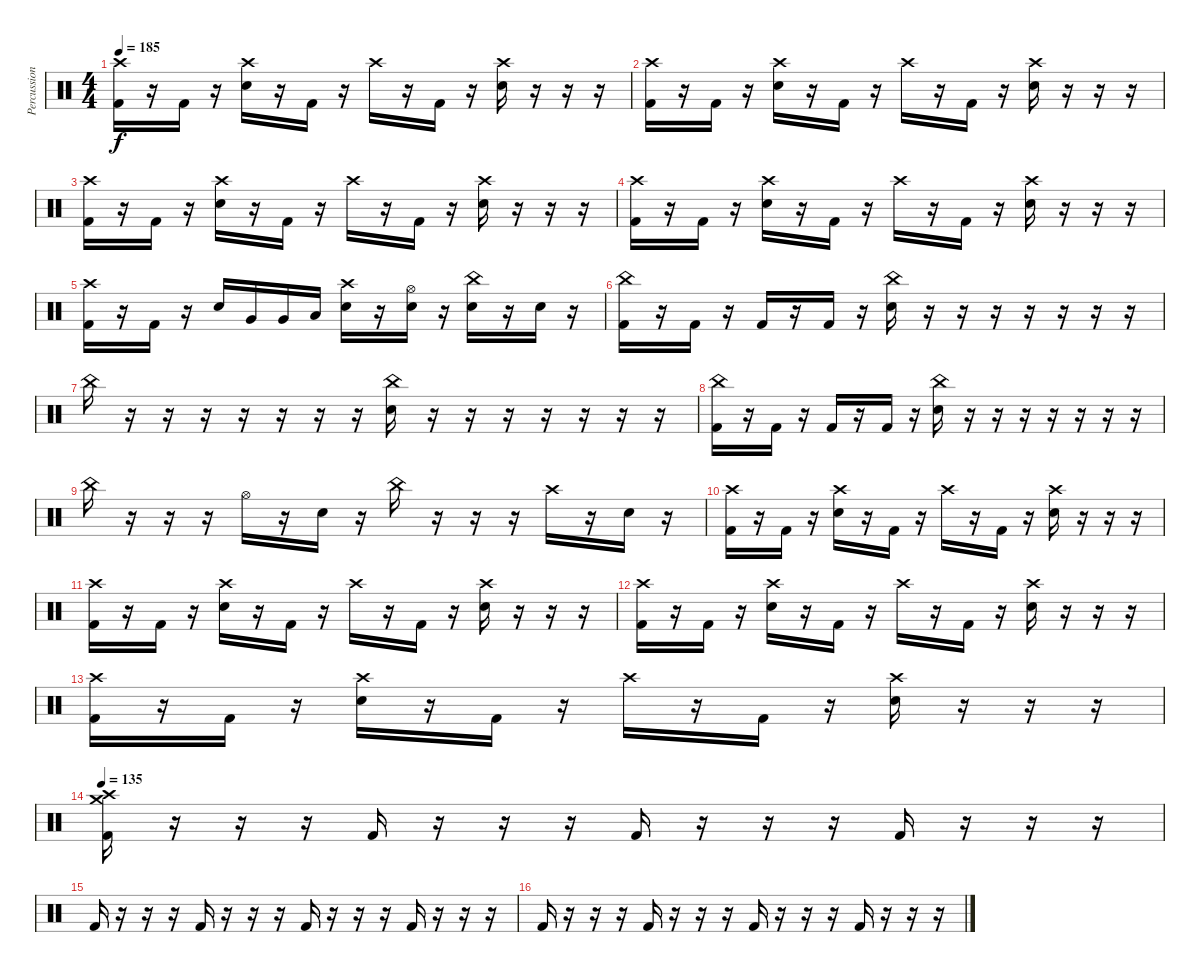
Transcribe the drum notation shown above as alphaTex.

\track ("Percussion" "Percussion") {instrument percussion}
\staff {score}
\articulation defaults
\ts (4 4)
\tempo 185
\clef neutral
\ks c
("Crash high (hit)" "Kick (hit) 2").16{dy f} r.16 "Kick (hit) 2".16 r.16 ("Crash high (hit)" "Electric Snare (hit)").16 r.16 "Kick (hit) 2".16 r.16 "Crash high (hit)".16 r.16 "Kick (hit) 2".16 r.16 ("Crash high (hit)" "Electric Snare (hit)").16 r.16 r.16 r.16 |
("Crash high (hit)" "Kick (hit) 2").16 r.16 "Kick (hit) 2".16 r.16 ("Crash high (hit)" "Electric Snare (hit)").16 r.16 "Kick (hit) 2".16 r.16 "Crash high (hit)".16 r.16 "Kick (hit) 2".16 r.16 ("Crash high (hit)" "Electric Snare (hit)").16 r.16 r.16 r.16 |
("Crash high (hit)" "Kick (hit) 2").16 r.16 "Kick (hit) 2".16 r.16 ("Crash high (hit)" "Electric Snare (hit)").16 r.16 "Kick (hit) 2".16 r.16 "Crash high (hit)".16 r.16 "Kick (hit) 2".16 r.16 ("Crash high (hit)" "Electric Snare (hit)").16 r.16 r.16 r.16 |
("Crash high (hit)" "Kick (hit) 2").16 r.16 "Kick (hit) 2".16 r.16 ("Crash high (hit)" "Electric Snare (hit)").16 r.16 "Kick (hit) 2".16 r.16 "Crash high (hit)".16 r.16 "Kick (hit) 2".16 r.16 ("Crash high (hit)" "Electric Snare (hit)").16 r.16 r.16 r.16 |
("Crash high (hit)" "Kick (hit) 2").16 r.16 "Kick (hit) 2".16 r.16 "Electric Snare (hit)".16 "Very Low Tom (hit)".16 "Very Low Tom (hit)".16 "Low Floor Tom (hit)".16 ("Crash high (hit)" "Electric Snare (hit)").16 r.16 ("Hi-Hat (open)" "Electric Snare (hit)").16 r.16 ("China (hit)" "Electric Snare (hit)").16 r.16 "Electric Snare (hit)".16 r.16 |
("China (hit)" "Kick (hit) 2").16 r.16 "Kick (hit) 2".16 r.16 "Kick (hit) 2".16 r.16 "Kick (hit) 2".16 r.16 ("China (hit)" "Electric Snare (hit)").16 r.16 r.16 r.16 r.16 r.16 r.16 r.16 |
"China (hit)".16 r.16 r.16 r.16 r.16 r.16 r.16 r.16 ("China (hit)" "Electric Snare (hit)").16 r.16 r.16 r.16 r.16 r.16 r.16 r.16 |
("China (hit)" "Kick (hit) 2").16 r.16 "Kick (hit) 2".16 r.16 "Kick (hit) 2".16 r.16 "Kick (hit) 2".16 r.16 ("China (hit)" "Electric Snare (hit)").16 r.16 r.16 r.16 r.16 r.16 r.16 r.16 |
"China (hit)".16 r.16 r.16 r.16 "Hi-Hat (open)".16 r.16 "Electric Snare (hit)".16 r.16 "China (hit)".16 r.16 r.16 r.16 "Crash high (hit)".16 r.16 "Electric Snare (hit)".16 r.16 |
("Crash high (hit)" "Kick (hit) 2").16 r.16 "Kick (hit) 2".16 r.16 ("Crash high (hit)" "Electric Snare (hit)").16 r.16 "Kick (hit) 2".16 r.16 "Crash high (hit)".16 r.16 "Kick (hit) 2".16 r.16 ("Crash high (hit)" "Electric Snare (hit)").16 r.16 r.16 r.16 |
("Crash high (hit)" "Kick (hit) 2").16 r.16 "Kick (hit) 2".16 r.16 ("Crash high (hit)" "Electric Snare (hit)").16 r.16 "Kick (hit) 2".16 r.16 "Crash high (hit)".16 r.16 "Kick (hit) 2".16 r.16 ("Crash high (hit)" "Electric Snare (hit)").16 r.16 r.16 r.16 |
("Crash high (hit)" "Kick (hit) 2").16 r.16 "Kick (hit) 2".16 r.16 ("Crash high (hit)" "Electric Snare (hit)").16 r.16 "Kick (hit) 2".16 r.16 "Crash high (hit)".16 r.16 "Kick (hit) 2".16 r.16 ("Crash high (hit)" "Electric Snare (hit)").16 r.16 r.16 r.16 |
("Crash high (hit)" "Kick (hit) 2").16 r.16 "Kick (hit) 2".16 r.16 ("Crash high (hit)" "Electric Snare (hit)").16 r.16 "Kick (hit) 2".16 r.16 "Crash high (hit)".16 r.16 "Kick (hit) 2".16 r.16 ("Crash high (hit)" "Electric Snare (hit)").16 r.16 r.16 r.16 |
\tempo 135
("Crash high (hit)" "Crash medium (hit)" "Kick (hit) 2").16 r.16 r.16 r.16 "Kick (hit) 2".16 r.16 r.16 r.16 "Kick (hit) 2".16 r.16 r.16 r.16 "Kick (hit) 2".16 r.16 r.16 r.16 |
"Kick (hit) 2".16 r.16 r.16 r.16 "Kick (hit) 2".16 r.16 r.16 r.16 "Kick (hit) 2".16 r.16 r.16 r.16 "Kick (hit) 2".16 r.16 r.16 r.16 |
"Kick (hit) 2".16 r.16 r.16 r.16 "Kick (hit) 2".16 r.16 r.16 r.16 "Kick (hit) 2".16 r.16 r.16 r.16 "Kick (hit) 2".16 r.16 r.16 r.16
